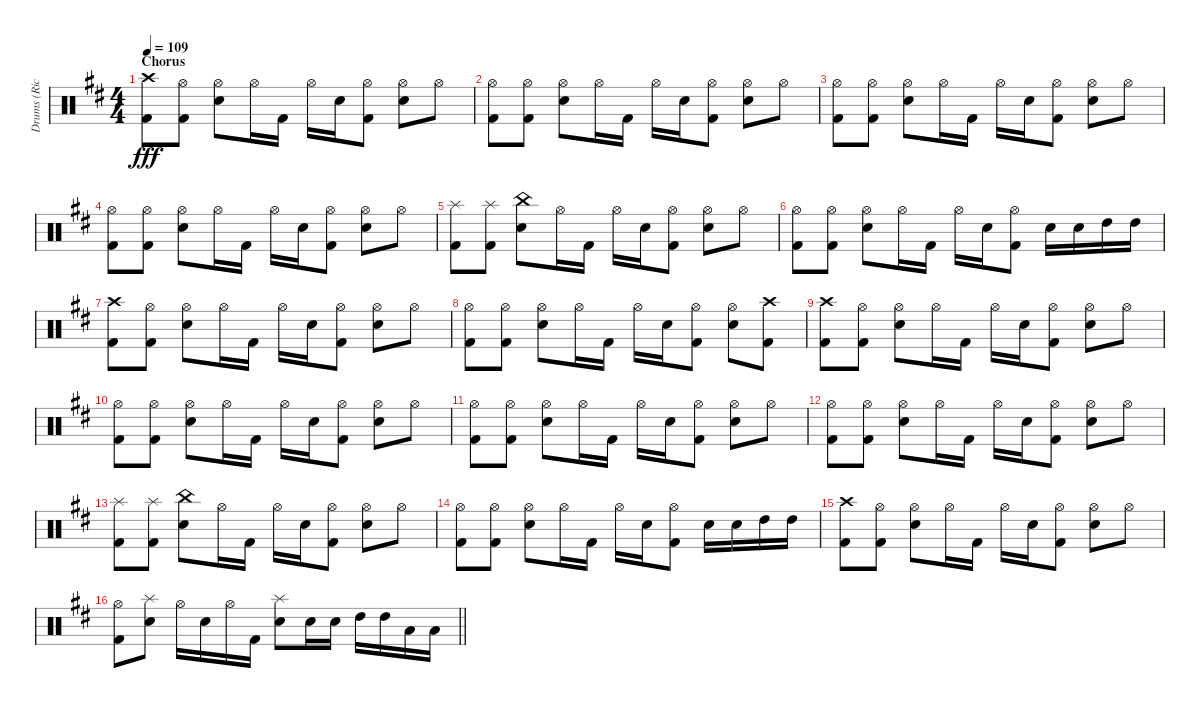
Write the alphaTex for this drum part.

\track ("Drums (Rick McMurray)" "Drums (Ric") {instrument percussion}
\staff {score}
\articulation defaults
\ts (4 4)
\section ("" "Chorus")
\tempo 109
\clef neutral
\ks d
("Crash high (hit)" "Kick (hit) 2").8{dy fff} ("Hi-Hat (open)" "Kick (hit) 2").8 ("Hi-Hat (open)" "Snare (hit) 2").8 "Hi-Hat (open)".16 "Kick (hit) 2".16 "Hi-Hat (open)".16 "Snare (hit) 2".16 ("Hi-Hat (open)" "Kick (hit) 2").8 ("Hi-Hat (open)" "Snare (hit) 2").8 "Hi-Hat (open)".8 |
("Hi-Hat (open)" "Kick (hit) 2").8 ("Hi-Hat (open)" "Kick (hit) 2").8 ("Hi-Hat (open)" "Snare (hit) 2").8 "Hi-Hat (open)".16 "Kick (hit) 2".16 "Hi-Hat (open)".16 "Snare (hit) 2".16 ("Hi-Hat (open)" "Kick (hit) 2").8 ("Hi-Hat (open)" "Snare (hit) 2").8 "Hi-Hat (open)".8 |
("Hi-Hat (open)" "Kick (hit) 2").8 ("Hi-Hat (open)" "Kick (hit) 2").8 ("Hi-Hat (open)" "Snare (hit) 2").8 "Hi-Hat (open)".16 "Kick (hit) 2".16 "Hi-Hat (open)".16 "Snare (hit) 2".16 ("Hi-Hat (open)" "Kick (hit) 2").8 ("Hi-Hat (open)" "Snare (hit) 2").8 "Hi-Hat (open)".8 |
("Hi-Hat (open)" "Kick (hit) 2").8 ("Hi-Hat (open)" "Kick (hit) 2").8 ("Hi-Hat (open)" "Snare (hit) 2").8 "Hi-Hat (open)".16 "Kick (hit) 2".16 "Hi-Hat (open)".16 "Snare (hit) 2".16 ("Hi-Hat (open)" "Kick (hit) 2").8 ("Hi-Hat (open)" "Snare (hit) 2").8 "Hi-Hat (open)".8 |
("Splash (hit)" "Kick (hit) 2").8 ("Splash (hit)" "Kick (hit) 2").8 ("China (hit)" "Snare (hit) 2").8 "Hi-Hat (open)".16 "Kick (hit) 2".16 "Hi-Hat (open)".16 "Snare (hit) 2".16 ("Hi-Hat (open)" "Kick (hit) 2").8 ("Hi-Hat (open)" "Snare (hit) 2").8 "Hi-Hat (open)".8 |
("Hi-Hat (open)" "Kick (hit) 2").8 ("Hi-Hat (open)" "Kick (hit) 2").8 ("Hi-Hat (open)" "Snare (hit) 2").8 "Hi-Hat (open)".16 "Kick (hit) 2".16 "Hi-Hat (open)".16 "Snare (hit) 2".16 ("Hi-Hat (open)" "Kick (hit) 2").8 "Snare (hit) 2".16 "Snare (hit) 2".16 "High Tom (hit)".16 "High Tom (hit)".16 |
("Crash high (hit)" "Kick (hit) 2").8 ("Hi-Hat (open)" "Kick (hit) 2").8 ("Hi-Hat (open)" "Snare (hit) 2").8 "Hi-Hat (open)".16 "Kick (hit) 2".16 "Hi-Hat (open)".16 "Snare (hit) 2".16 ("Hi-Hat (open)" "Kick (hit) 2").8 ("Hi-Hat (open)" "Snare (hit) 2").8 "Hi-Hat (open)".8 |
("Hi-Hat (open)" "Kick (hit) 2").8 ("Hi-Hat (open)" "Kick (hit) 2").8 ("Hi-Hat (open)" "Snare (hit) 2").8 "Hi-Hat (open)".16 "Kick (hit) 2".16 "Hi-Hat (open)".16 "Snare (hit) 2".16 ("Hi-Hat (open)" "Kick (hit) 2").8 ("Hi-Hat (open)" "Snare (hit) 2").8 ("Crash high (hit)" "Kick (hit) 2").8 |
("Crash high (hit)" "Kick (hit) 2").8 ("Hi-Hat (open)" "Kick (hit) 2").8 ("Hi-Hat (open)" "Snare (hit) 2").8 "Hi-Hat (open)".16 "Kick (hit) 2".16 "Hi-Hat (open)".16 "Snare (hit) 2".16 ("Hi-Hat (open)" "Kick (hit) 2").8 ("Hi-Hat (open)" "Snare (hit) 2").8 "Hi-Hat (open)".8 |
("Hi-Hat (open)" "Kick (hit) 2").8 ("Hi-Hat (open)" "Kick (hit) 2").8 ("Hi-Hat (open)" "Snare (hit) 2").8 "Hi-Hat (open)".16 "Kick (hit) 2".16 "Hi-Hat (open)".16 "Snare (hit) 2".16 ("Hi-Hat (open)" "Kick (hit) 2").8 ("Hi-Hat (open)" "Snare (hit) 2").8 "Hi-Hat (open)".8 |
("Hi-Hat (open)" "Kick (hit) 2").8 ("Hi-Hat (open)" "Kick (hit) 2").8 ("Hi-Hat (open)" "Snare (hit) 2").8 "Hi-Hat (open)".16 "Kick (hit) 2".16 "Hi-Hat (open)".16 "Snare (hit) 2".16 ("Hi-Hat (open)" "Kick (hit) 2").8 ("Hi-Hat (open)" "Snare (hit) 2").8 "Hi-Hat (open)".8 |
("Hi-Hat (open)" "Kick (hit) 2").8 ("Hi-Hat (open)" "Kick (hit) 2").8 ("Hi-Hat (open)" "Snare (hit) 2").8 "Hi-Hat (open)".16 "Kick (hit) 2".16 "Hi-Hat (open)".16 "Snare (hit) 2".16 ("Hi-Hat (open)" "Kick (hit) 2").8 ("Hi-Hat (open)" "Snare (hit) 2").8 "Hi-Hat (open)".8 |
("Splash (hit)" "Kick (hit) 2").8 ("Splash (hit)" "Kick (hit) 2").8 ("China (hit)" "Snare (hit) 2").8 "Hi-Hat (open)".16 "Kick (hit) 2".16 "Hi-Hat (open)".16 "Snare (hit) 2".16 ("Hi-Hat (open)" "Kick (hit) 2").8 ("Hi-Hat (open)" "Snare (hit) 2").8 "Hi-Hat (open)".8 |
("Hi-Hat (open)" "Kick (hit) 2").8 ("Hi-Hat (open)" "Kick (hit) 2").8 ("Hi-Hat (open)" "Snare (hit) 2").8 "Hi-Hat (open)".16 "Kick (hit) 2".16 "Hi-Hat (open)".16 "Snare (hit) 2".16 ("Hi-Hat (open)" "Kick (hit) 2").8 "Snare (hit) 2".16 "Snare (hit) 2".16 "High Tom (hit)".16 "High Tom (hit)".16 |
("Crash high (hit)" "Kick (hit) 2").8 ("Hi-Hat (open)" "Kick (hit) 2").8 ("Hi-Hat (open)" "Snare (hit) 2").8 "Hi-Hat (open)".16 "Kick (hit) 2".16 "Hi-Hat (open)".16 "Snare (hit) 2".16 ("Hi-Hat (open)" "Kick (hit) 2").8 ("Hi-Hat (open)" "Snare (hit) 2").8 "Hi-Hat (open)".8 |
\barLineRight lightlight
("Hi-Hat (open)" "Kick (hit) 2").8 ("Splash (hit)" "Snare (hit) 2").8 "Hi-Hat (open)".16 "Snare (hit) 2".16 "Hi-Hat (open)".16 "Kick (hit) 2".16 ("Splash (hit)" "Snare (hit) 2").8 "Snare (hit) 2".16 "Snare (hit) 2".16 "High Tom (hit)".16 "High Tom (hit)".16 "Low Tom (hit)".16 "Low Tom (hit)".16
